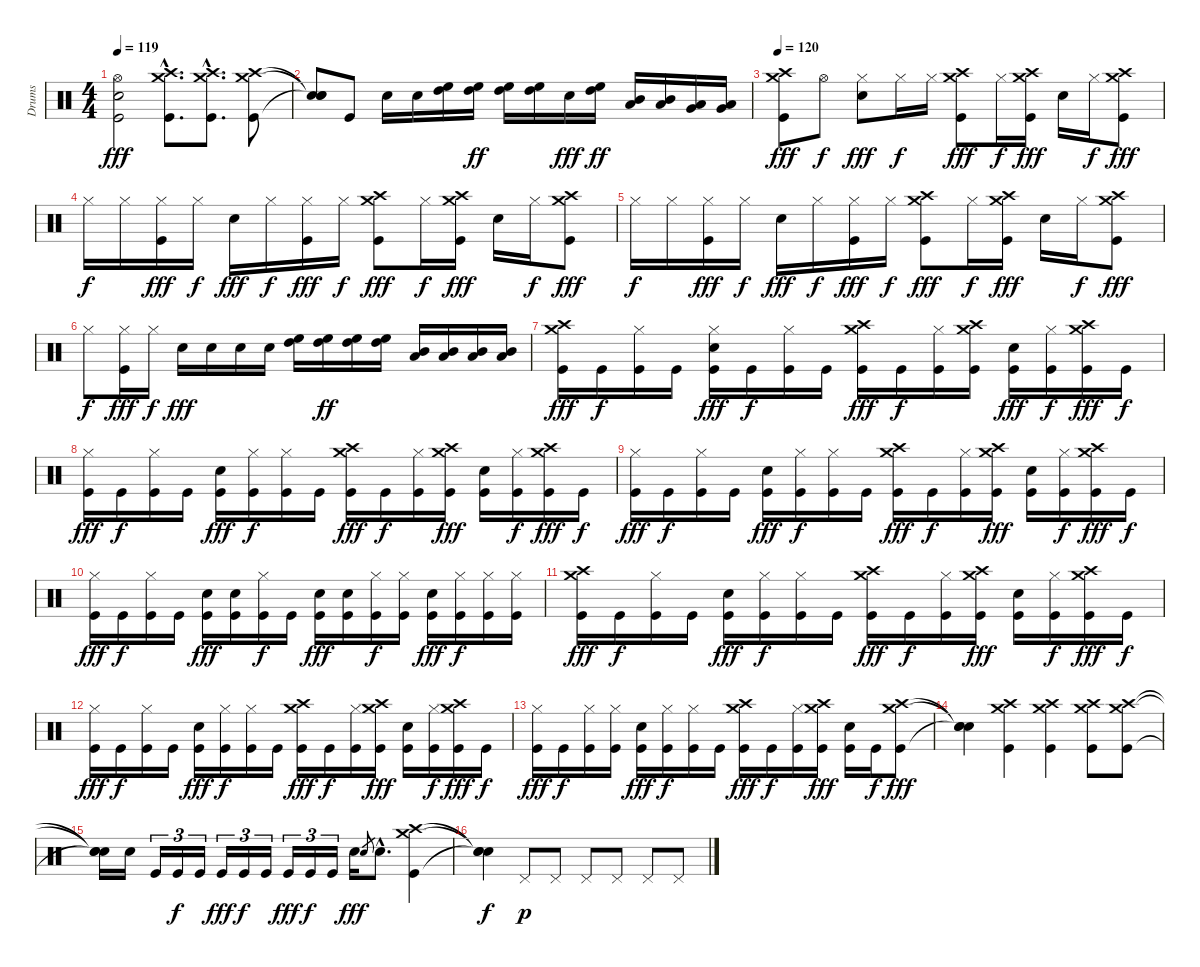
\track ("Drums" "Drums") {instrument percussion}
\staff {score}
\articulation defaults
\ts (4 4)
\tempo 119
\clef neutral
\ks c
("Hi-Hat (open)"{t} "Snare (hit)"{t} "Kick (hit)"{t}).2{dy fff} ("Crash high (hit)"{hac} "Crash medium (hit)"{hac} "Kick (hit)"{hac}).8{d} ("Crash high (hit)"{hac} "Crash medium (hit)"{hac} "Kick (hit)"{hac}).8{d} ("Crash high (hit)" "Crash medium (hit)" "Kick (hit)").8 |
("Snare (hit)"{t} "Snare (hit)"{t} "Snare (hit)"{t}).8 "Kick (hit)".8 "Snare (hit) 2".16 "Snare (hit) 2".16 ("High Floor Tom (hit)" "High Tom (hit)").16 ("High Floor Tom (hit)" "High Tom (hit)").16{dy ff} ("High Floor Tom (hit)" "High Tom (hit)").16 ("High Floor Tom (hit)" "High Tom (hit)").16 "Snare (hit) 2".16{dy fff} ("High Floor Tom (hit)" "High Tom (hit)").16{dy ff} ("Mid Tom (hit)" "Low Tom (hit)").16 ("Mid Tom (hit)" "Low Tom (hit)").16 ("Very Low Tom (hit)" "Low Floor Tom (hit)").16 ("Very Low Tom (hit)" "Low Floor Tom (hit)").16 |
\tempo 120
("Crash high (hit)" "Crash medium (hit)" "Kick (hit)").8{dy fff} "Hi-Hat (open)".8{dy f} ("Hi-Hat (closed)" "Snare (hit) 2").8{dy fff} "Hi-Hat (closed)".16{dy f} "Hi-Hat (closed)".16 ("Crash high (hit)" "Crash medium (hit)" "Kick (hit)").8{dy fff} "Hi-Hat (closed)".16{dy f} ("Crash high (hit)" "Crash medium (hit)" "Kick (hit)").16{dy fff} "Snare (hit) 2".16 "Hi-Hat (closed)".16{dy f} ("Crash high (hit)" "Crash medium (hit)" "Kick (hit)").8{dy fff} |
"Hi-Hat (closed)".16{dy f} "Hi-Hat (closed)".16 ("Hi-Hat (closed)" "Kick (hit)").16{dy fff} "Hi-Hat (closed)".16{dy f} "Snare (hit) 2".16{dy fff} "Hi-Hat (closed)".16{dy f} ("Hi-Hat (closed)" "Kick (hit)").16{dy fff} "Hi-Hat (closed)".16{dy f} ("Crash high (hit)" "Crash medium (hit)" "Kick (hit)").8{dy fff} "Hi-Hat (closed)".16{dy f} ("Crash high (hit)" "Crash medium (hit)" "Kick (hit)").16{dy fff} "Snare (hit) 2".16 "Hi-Hat (closed)".16{dy f} ("Crash high (hit)" "Crash medium (hit)" "Kick (hit)").8{dy fff} |
"Hi-Hat (closed)".16{dy f} "Hi-Hat (closed)".16 ("Hi-Hat (closed)" "Kick (hit)").16{dy fff} "Hi-Hat (closed)".16{dy f} "Snare (hit) 2".16{dy fff} "Hi-Hat (closed)".16{dy f} ("Hi-Hat (closed)" "Kick (hit)").16{dy fff} "Hi-Hat (closed)".16{dy f} ("Crash high (hit)" "Crash medium (hit)" "Kick (hit)").8{dy fff} "Hi-Hat (closed)".16{dy f} ("Crash high (hit)" "Crash medium (hit)" "Kick (hit)").16{dy fff} "Snare (hit) 2".16 "Hi-Hat (closed)".16{dy f} ("Crash high (hit)" "Crash medium (hit)" "Kick (hit)").8{dy fff} |
"Hi-Hat (closed)".8{dy f} ("Hi-Hat (closed)" "Kick (hit)").16{dy fff} "Hi-Hat (closed)".16{dy f} "Snare (hit) 2".16{dy fff} "Snare (hit) 2".16 "Snare (hit) 2".16 "Snare (hit) 2".16 ("High Floor Tom (hit)" "High Tom (hit)").16 ("High Floor Tom (hit)" "High Tom (hit)").16{dy ff} ("High Floor Tom (hit)" "High Tom (hit)").16 ("High Floor Tom (hit)" "High Tom (hit)").16 ("Mid Tom (hit)" "Low Tom (hit)").16 ("Mid Tom (hit)" "Low Tom (hit)").16 ("Mid Tom (hit)" "Low Tom (hit)").16 ("Mid Tom (hit)" "Low Tom (hit)").16 |
("Crash high (hit)" "Crash medium (hit)" "Kick (hit)").16{dy fff} "Kick (hit)".16{dy f} ("Hi-Hat (closed)" "Kick (hit)").16 "Kick (hit)".16 ("Hi-Hat (closed)" "Snare (hit) 2" "Kick (hit)").16{dy fff} "Kick (hit)".16{dy f} ("Hi-Hat (closed)" "Kick (hit)").16 "Kick (hit)".16 ("Crash high (hit)" "Crash medium (hit)" "Kick (hit)").16{dy fff} "Kick (hit)".16{dy f} ("Hi-Hat (closed)" "Kick (hit)").16 ("Crash high (hit)" "Crash medium (hit)" "Kick (hit)").16 ("Snare (hit) 2" "Kick (hit)").16{dy fff} ("Hi-Hat (closed)" "Kick (hit)").16{dy f} ("Crash high (hit)" "Crash medium (hit)" "Kick (hit)").16{dy fff} "Kick (hit)".16{dy f} |
("Hi-Hat (closed)" "Kick (hit)").16{dy fff} "Kick (hit)".16{dy f} ("Hi-Hat (closed)" "Kick (hit)").16 "Kick (hit)".16 ("Snare (hit) 2" "Kick (hit)").16{dy fff} ("Hi-Hat (closed)" "Kick (hit)").16{dy f} ("Hi-Hat (closed)" "Kick (hit)").16 "Kick (hit)".16 ("Crash high (hit)" "Crash medium (hit)" "Kick (hit)").16{dy fff} "Kick (hit)".16{dy f} ("Hi-Hat (closed)" "Kick (hit)").16 ("Crash high (hit)" "Crash medium (hit)" "Kick (hit)").16{dy fff} ("Snare (hit) 2" "Kick (hit)").16 ("Hi-Hat (closed)" "Kick (hit)").16{dy f} ("Crash high (hit)" "Crash medium (hit)" "Kick (hit)").16{dy fff} "Kick (hit)".16{dy f} |
("Hi-Hat (closed)" "Kick (hit)").16{dy fff} "Kick (hit)".16{dy f} ("Hi-Hat (closed)" "Kick (hit)").16 "Kick (hit)".16 ("Snare (hit) 2" "Kick (hit)").16{dy fff} ("Hi-Hat (closed)" "Kick (hit)").16{dy f} ("Hi-Hat (closed)" "Kick (hit)").16 "Kick (hit)".16 ("Crash high (hit)" "Crash medium (hit)" "Kick (hit)").16{dy fff} "Kick (hit)".16{dy f} ("Hi-Hat (closed)" "Kick (hit)").16 ("Crash high (hit)" "Crash medium (hit)" "Kick (hit)").16{dy fff} ("Snare (hit) 2" "Kick (hit)").16 ("Hi-Hat (closed)" "Kick (hit)").16{dy f} ("Crash high (hit)" "Crash medium (hit)" "Kick (hit)").16{dy fff} "Kick (hit)".16{dy f} |
("Hi-Hat (closed)" "Kick (hit)").16{dy fff} "Kick (hit)".16{dy f} ("Hi-Hat (closed)" "Kick (hit)").16 "Kick (hit)".16 ("Snare (hit) 2" "Kick (hit)").16{dy fff} ("Snare (hit) 2" "Kick (hit)").16 ("Hi-Hat (closed)" "Kick (hit)").16{dy f} "Kick (hit)".16 ("Snare (hit) 2" "Kick (hit)").16{dy fff} ("Snare (hit) 2" "Kick (hit)").16 ("Hi-Hat (closed)" "Kick (hit)").16{dy f} ("Hi-Hat (closed)" "Kick (hit)").16 ("Snare (hit) 2" "Kick (hit)").16{dy fff} ("Hi-Hat (closed)" "Kick (hit)").16{dy f} ("Hi-Hat (closed)" "Kick (hit)").16 ("Hi-Hat (closed)" "Kick (hit)").16 |
("Crash high (hit)" "Crash medium (hit)" "Kick (hit)").16{dy fff} "Kick (hit)".16{dy f} ("Hi-Hat (closed)" "Kick (hit)").16 "Kick (hit)".16 ("Snare (hit) 2" "Kick (hit)").16{dy fff} ("Hi-Hat (closed)" "Kick (hit)").16{dy f} ("Hi-Hat (closed)" "Kick (hit)").16 "Kick (hit)".16 ("Crash high (hit)" "Crash medium (hit)" "Kick (hit)").16{dy fff} "Kick (hit)".16{dy f} ("Hi-Hat (closed)" "Kick (hit)").16 ("Crash high (hit)" "Crash medium (hit)" "Kick (hit)").16{dy fff} ("Snare (hit) 2" "Kick (hit)").16 ("Hi-Hat (closed)" "Kick (hit)").16{dy f} ("Crash high (hit)" "Crash medium (hit)" "Kick (hit)").16{dy fff} "Kick (hit)".16{dy f} |
("Hi-Hat (closed)" "Kick (hit)").16{dy fff} "Kick (hit)".16{dy f} ("Hi-Hat (closed)" "Kick (hit)").16 "Kick (hit)".16 ("Snare (hit) 2" "Kick (hit)").16{dy fff} ("Hi-Hat (closed)" "Kick (hit)").16{dy f} ("Hi-Hat (closed)" "Kick (hit)").16 "Kick (hit)".16 ("Crash high (hit)" "Crash medium (hit)" "Kick (hit)").16{dy fff} "Kick (hit)".16{dy f} ("Hi-Hat (closed)" "Kick (hit)").16 ("Crash high (hit)" "Crash medium (hit)" "Kick (hit)").16{dy fff} ("Snare (hit) 2" "Kick (hit)").16 ("Hi-Hat (closed)" "Kick (hit)").16{dy f} ("Crash high (hit)" "Crash medium (hit)" "Kick (hit)").16{dy fff} "Kick (hit)".16{dy f} |
("Hi-Hat (closed)" "Kick (hit)").16{dy fff} "Kick (hit)".16{dy f} ("Hi-Hat (closed)" "Kick (hit)").16 ("Hi-Hat (closed)" "Kick (hit)").16 ("Snare (hit) 2" "Kick (hit)").16{dy fff} ("Hi-Hat (closed)" "Kick (hit)").16{dy f} ("Hi-Hat (closed)" "Kick (hit)").16 "Kick (hit)".16 ("Crash high (hit)" "Crash medium (hit)" "Kick (hit)").16{dy fff} "Kick (hit)".16{dy f} ("Hi-Hat (closed)" "Kick (hit)").16 ("Crash high (hit)" "Crash medium (hit)" "Kick (hit)").16{dy fff} ("Snare (hit) 2" "Kick (hit)").16 "Kick (hit)".16{dy f} ("Crash high (hit)" "Crash medium (hit)" "Kick (hit)").8{dy fff} |
("Snare (hit)"{t} "Snare (hit)"{t} "Snare (hit)"{t}).4 ("Crash high (hit)" "Crash medium (hit)" "Kick (hit)").4 ("Crash high (hit)" "Crash medium (hit)" "Kick (hit)").4 ("Crash high (hit)" "Crash medium (hit)" "Kick (hit)").8 ("Crash high (hit)" "Crash medium (hit)" "Kick (hit)").8 |
("Snare (hit)"{t} "Snare (hit)"{t} "Snare (hit)"{t}).16 "Snare (hit) 2".16 "Kick (hit)".16{tu (3 2)} "Kick (hit)".16{tu (3 2) dy f} "Kick (hit)".16{tu (3 2)} "Kick (hit)".16{tu (3 2) dy fff} "Kick (hit)".16{tu (3 2) dy f} "Kick (hit)".16{tu (3 2)} "Kick (hit)".16{tu (3 2) dy fff} "Kick (hit)".16{tu (3 2) dy f} "Kick (hit)".16{tu (3 2)} "Snare (hit) 2".16{dy fff} "Snare (hit) 2".8{gr} "Snare (hit) 2"{hac}.8{d} ("Crash high (hit)" "Crash medium (hit)" "Kick (hit)").4 |
("Snare (hit)"{t} "Snare (hit)"{t} "Snare (hit)"{t}).4{dy f} "Pedal Hi-Hat (hit)".8{dy p volume 7} "Pedal Hi-Hat (hit)".8 "Pedal Hi-Hat (hit)".8 "Pedal Hi-Hat (hit)".8 "Pedal Hi-Hat (hit)".8 "Pedal Hi-Hat (hit)".8
